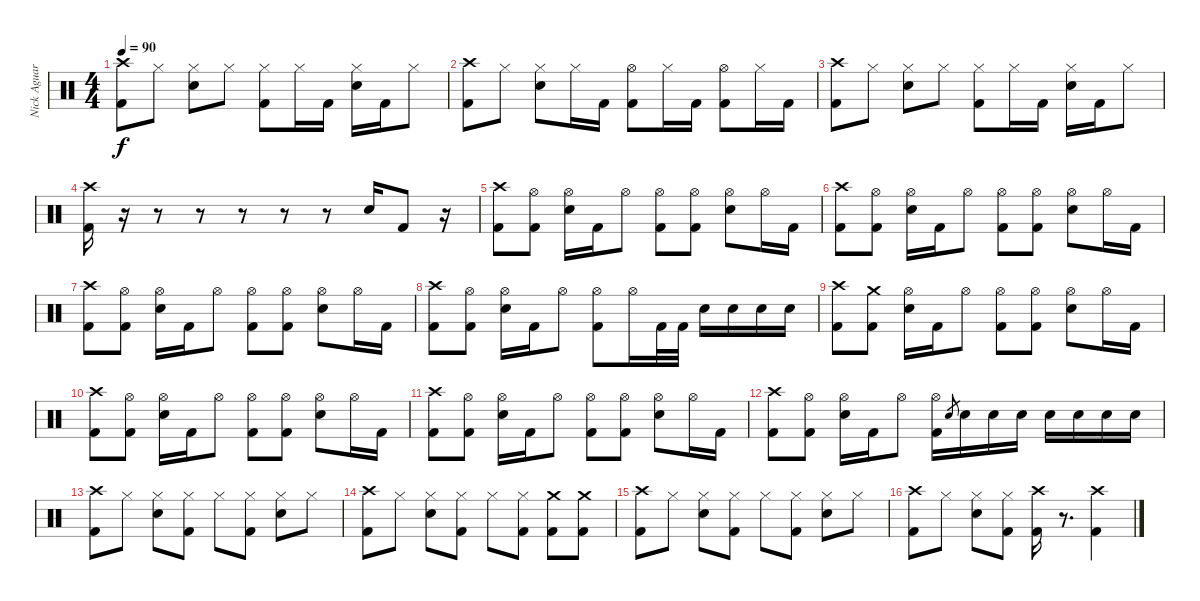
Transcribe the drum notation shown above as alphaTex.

\track ("Nick Aguara" "Nick Aguar") {instrument percussion}
\staff {score}
\articulation defaults
\ts (4 4)
\tempo 90
\clef neutral
\ks c
("Crash high (hit)" "Kick (hit) 2").8{dy f} "Hi-Hat (closed)".8 ("Hi-Hat (closed)" "Electric Snare (hit)").8 "Hi-Hat (closed)".8 ("Hi-Hat (closed)" "Kick (hit) 2").8 "Hi-Hat (closed)".16 "Kick (hit) 2".16 ("Hi-Hat (closed)" "Electric Snare (hit)").16 "Kick (hit) 2".16 "Hi-Hat (closed)".8 |
("Crash high (hit)" "Kick (hit) 2").8 "Hi-Hat (closed)".8 ("Hi-Hat (closed)" "Electric Snare (hit)").8 "Hi-Hat (closed)".16 "Kick (hit) 2".16 ("Hi-Hat (open)" "Kick (hit) 2").8 "Hi-Hat (closed)".16 "Kick (hit) 2".16 ("Hi-Hat (open)" "Kick (hit) 2").8 "Hi-Hat (closed)".16 "Kick (hit) 2".16 |
("Crash high (hit)" "Kick (hit) 2").8 "Hi-Hat (closed)".8 ("Hi-Hat (closed)" "Electric Snare (hit)").8 "Hi-Hat (closed)".8 ("Hi-Hat (closed)" "Kick (hit) 2").8 "Hi-Hat (closed)".16 "Kick (hit) 2".16 ("Hi-Hat (closed)" "Electric Snare (hit)").16 "Kick (hit) 2".16 "Hi-Hat (closed)".8 |
("Crash high (hit)" "Kick (hit) 2").16 r.16{volume 0} r.8 r.8 r.8 r.8 r.8 "Electric Snare (hit)".16{volume 16} "Kick (hit) 2".8 r.16 |
("Crash high (hit)" "Kick (hit) 2").8 ("Hi-Hat (open)" "Kick (hit) 2").8 ("Hi-Hat (open)" "Electric Snare (hit)").16 "Kick (hit) 2".16 "Hi-Hat (open)".8 ("Hi-Hat (open)" "Kick (hit) 2").8 ("Hi-Hat (open)" "Kick (hit) 2").8 ("Hi-Hat (open)" "Electric Snare (hit)").8 "Hi-Hat (open)".16 "Kick (hit) 2".16 |
("Crash high (hit)" "Kick (hit) 2").8 ("Hi-Hat (open)" "Kick (hit) 2").8 ("Hi-Hat (open)" "Electric Snare (hit)").16 "Kick (hit) 2".16 "Hi-Hat (open)".8 ("Hi-Hat (open)" "Kick (hit) 2").8 ("Hi-Hat (open)" "Kick (hit) 2").8 ("Hi-Hat (open)" "Electric Snare (hit)").8 "Hi-Hat (open)".16 "Kick (hit) 2".16 |
("Crash high (hit)" "Kick (hit) 2").8 ("Hi-Hat (open)" "Kick (hit) 2").8 ("Hi-Hat (open)" "Electric Snare (hit)").16 "Kick (hit) 2".16 "Hi-Hat (open)".8 ("Hi-Hat (open)" "Kick (hit) 2").8 ("Hi-Hat (open)" "Kick (hit) 2").8 ("Hi-Hat (open)" "Electric Snare (hit)").8 "Hi-Hat (open)".16 "Kick (hit) 2".16 |
("Crash high (hit)" "Kick (hit) 2").8 ("Hi-Hat (open)" "Kick (hit) 2").8 ("Hi-Hat (open)" "Electric Snare (hit)").16 "Kick (hit) 2".16 "Hi-Hat (open)".8 ("Hi-Hat (open)" "Kick (hit) 2").8 "Hi-Hat (open)".16 "Kick (hit) 2".32 "Kick (hit) 2".32 "Electric Snare (hit)".16 "Electric Snare (hit)".16 "Electric Snare (hit)".16 "Electric Snare (hit)".16 |
("Crash high (hit)" "Kick (hit) 2").8 ("Crash medium (hit)" "Kick (hit) 2").8 ("Hi-Hat (open)" "Electric Snare (hit)").16 "Kick (hit) 2".16 "Hi-Hat (open)".8 ("Hi-Hat (open)" "Kick (hit) 2").8 ("Hi-Hat (open)" "Kick (hit) 2").8 ("Hi-Hat (open)" "Electric Snare (hit)").8 "Hi-Hat (open)".16 "Kick (hit) 2".16 |
("Crash high (hit)" "Kick (hit) 2").8 ("Hi-Hat (open)" "Kick (hit) 2").8 ("Hi-Hat (open)" "Electric Snare (hit)").16 "Kick (hit) 2".16 "Hi-Hat (open)".8 ("Hi-Hat (open)" "Kick (hit) 2").8 ("Hi-Hat (open)" "Kick (hit) 2").8 ("Hi-Hat (open)" "Electric Snare (hit)").8 "Hi-Hat (open)".16 "Kick (hit) 2".16 |
("Crash high (hit)" "Kick (hit) 2").8 ("Hi-Hat (open)" "Kick (hit) 2").8 ("Hi-Hat (open)" "Electric Snare (hit)").16 "Kick (hit) 2".16 "Hi-Hat (open)".8 ("Hi-Hat (open)" "Kick (hit) 2").8 ("Hi-Hat (open)" "Kick (hit) 2").8 ("Hi-Hat (open)" "Electric Snare (hit)").8 "Hi-Hat (open)".16 "Kick (hit) 2".16 |
("Crash high (hit)" "Kick (hit) 2").8 ("Hi-Hat (open)" "Kick (hit) 2").8 ("Hi-Hat (open)" "Electric Snare (hit)").16 "Kick (hit) 2".16 "Hi-Hat (open)".8 ("Hi-Hat (open)" "Kick (hit) 2").16 "Electric Snare (hit)".8{gr} "Electric Snare (hit)".16 "Electric Snare (hit)".16 "Electric Snare (hit)".16 "Electric Snare (hit)".16 "Electric Snare (hit)".16 "Electric Snare (hit)".16 "Electric Snare (hit)".16 |
("Crash high (hit)" "Kick (hit) 2").8 "Hi-Hat (closed)".8 ("Hi-Hat (closed)" "Electric Snare (hit)").8 ("Hi-Hat (closed)" "Kick (hit) 2").8 "Hi-Hat (closed)".8 ("Hi-Hat (closed)" "Kick (hit) 2").8 ("Hi-Hat (closed)" "Electric Snare (hit)").8 "Hi-Hat (closed)".8 |
("Crash high (hit)" "Kick (hit) 2").8 "Hi-Hat (closed)".8 ("Hi-Hat (closed)" "Electric Snare (hit)").8 ("Hi-Hat (closed)" "Kick (hit) 2").8 "Hi-Hat (closed)".8 ("Hi-Hat (closed)" "Kick (hit) 2").8 ("Crash medium (hit)" "Kick (hit) 2").8 ("Crash medium (hit)" "Kick (hit) 2").8 |
("Crash high (hit)" "Kick (hit) 2").8 "Hi-Hat (closed)".8 ("Hi-Hat (closed)" "Electric Snare (hit)").8 ("Hi-Hat (closed)" "Kick (hit) 2").8 "Hi-Hat (closed)".8 ("Hi-Hat (closed)" "Kick (hit) 2").8 ("Hi-Hat (closed)" "Electric Snare (hit)").8 "Hi-Hat (closed)".8 |
("Crash high (hit)" "Kick (hit) 2").8 "Hi-Hat (closed)".8 ("Hi-Hat (closed)" "Electric Snare (hit)").8 ("Hi-Hat (closed)" "Kick (hit) 2").8 ("Crash high (hit)" "Kick (hit) 2").16 r.8{d volume 0} ("Crash high (hit)" "Kick (hit) 2").4{volume 16}
